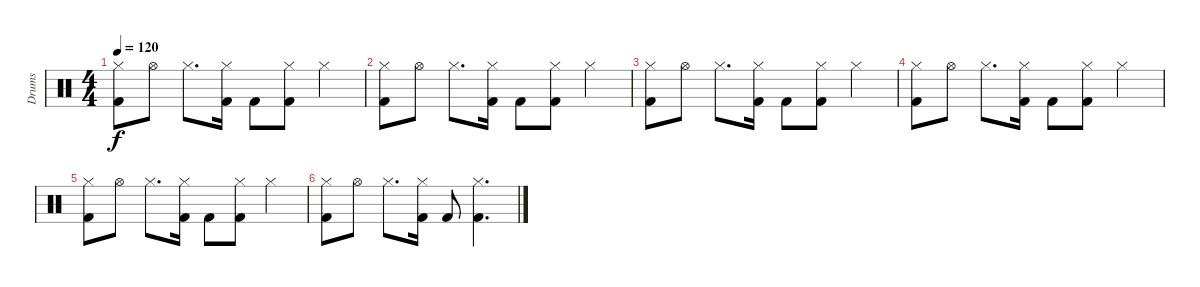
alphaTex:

\track ("Drums" "Drums") {instrument percussion}
\staff {score}
\articulation defaults
\ts (4 4)
\tempo 120
\clef neutral
\ks c
("Hi-Hat (closed)" "Kick (hit) 2").8{dy f} "Hi-Hat (open)".8 "Hi-Hat (closed)".8{d} ("Hi-Hat (closed)" "Kick (hit) 2").16 "Kick (hit) 2".8 ("Hi-Hat (closed)" "Kick (hit) 2").8 "Hi-Hat (closed)".4 |
("Hi-Hat (closed)" "Kick (hit) 2").8 "Hi-Hat (open)".8 "Hi-Hat (closed)".8{d} ("Hi-Hat (closed)" "Kick (hit) 2").16 "Kick (hit) 2".8 ("Hi-Hat (closed)" "Kick (hit) 2").8 "Hi-Hat (closed)".4 |
("Hi-Hat (closed)" "Kick (hit) 2").8 "Hi-Hat (open)".8 "Hi-Hat (closed)".8{d} ("Hi-Hat (closed)" "Kick (hit) 2").16 "Kick (hit) 2".8 ("Hi-Hat (closed)" "Kick (hit) 2").8 "Hi-Hat (closed)".4 |
("Hi-Hat (closed)" "Kick (hit) 2").8 "Hi-Hat (open)".8 "Hi-Hat (closed)".8{d} ("Hi-Hat (closed)" "Kick (hit) 2").16 "Kick (hit) 2".8 ("Hi-Hat (closed)" "Kick (hit) 2").8 "Hi-Hat (closed)".4 |
("Hi-Hat (closed)" "Kick (hit) 2").8 "Hi-Hat (open)".8 "Hi-Hat (closed)".8{d} ("Hi-Hat (closed)" "Kick (hit) 2").16 "Kick (hit) 2".8 ("Hi-Hat (closed)" "Kick (hit) 2").8 "Hi-Hat (closed)".4 |
("Hi-Hat (closed)" "Kick (hit) 2").8 "Hi-Hat (open)".8 "Hi-Hat (closed)".8{d} ("Hi-Hat (closed)" "Kick (hit) 2").16 "Kick (hit) 2".8 ("Hi-Hat (closed)" "Kick (hit) 2").4{d}
